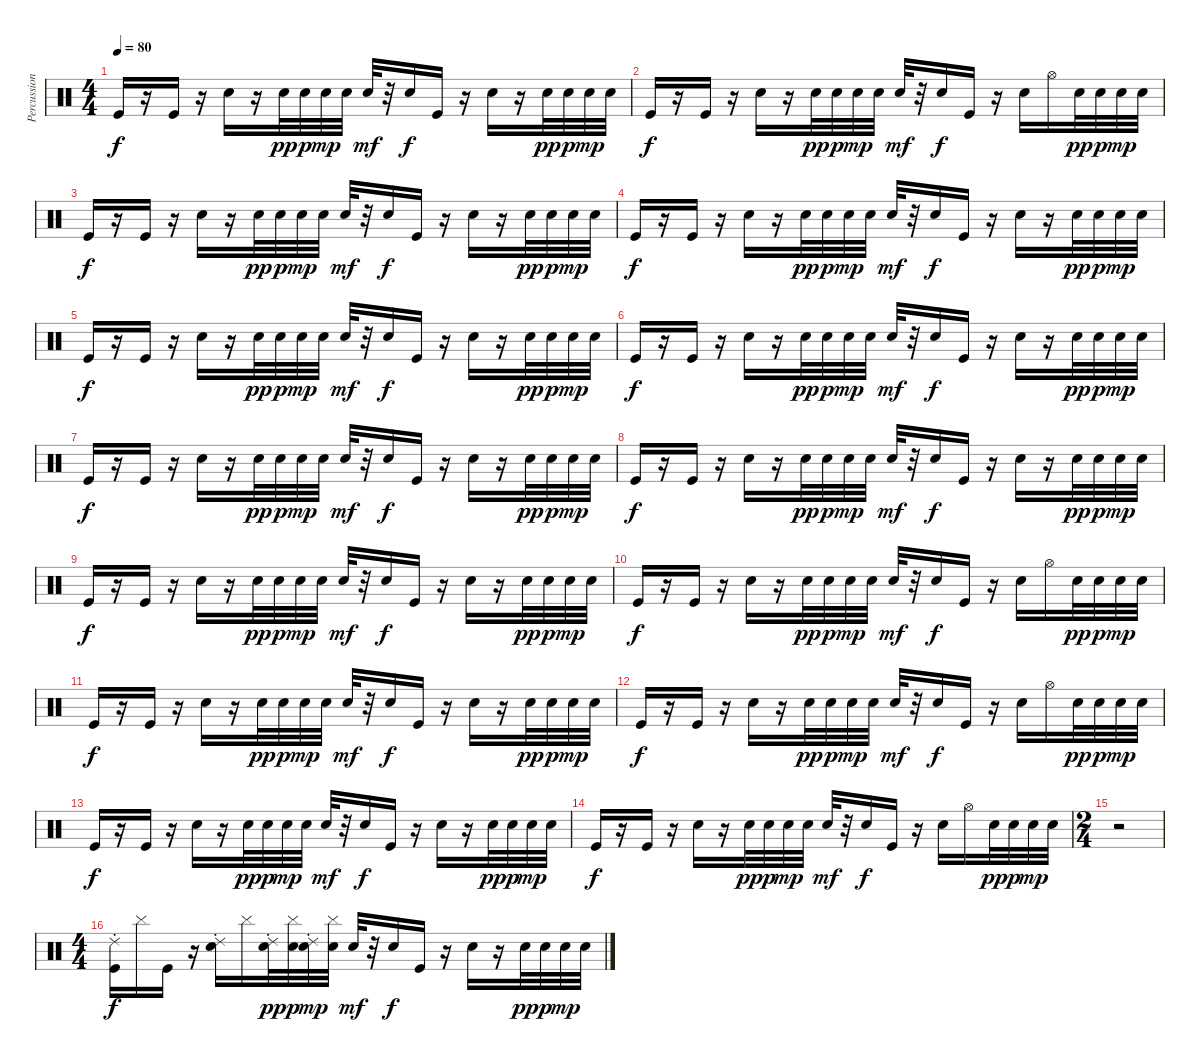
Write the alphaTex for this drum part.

\track ("Percussions" "Percussion") {instrument percussion}
\staff {score}
\articulation defaults
\ts (4 4)
\tempo 80
\clef neutral
\ks c "Kick (hit)".16{dy f}
r.16 "Kick (hit)".16 r.16 "Snare (hit) 2".16 r.16 "Snare (hit) 2".32{dy pp} "Snare (hit) 2".32{dy p} "Snare (hit) 2".32{dy mp} "Snare (hit) 2".32 "Snare (hit) 2".32{dy mf} r.32 "Electric Snare (hit)".16{dy f} "Kick (hit)".16 r.16 "Electric Snare (hit)".16 r.16 "Snare (hit) 2".32{dy pp} "Snare (hit) 2".32{dy p} "Snare (hit) 2".32{dy mp} "Snare (hit) 2".32 |
"Kick (hit)".16{dy f} r.16 "Kick (hit)".16 r.16 "Snare (hit) 2".16 r.16 "Snare (hit) 2".32{dy pp} "Snare (hit) 2".32{dy p} "Snare (hit) 2".32{dy mp} "Snare (hit) 2".32 "Snare (hit) 2".32{dy mf} r.32 "Electric Snare (hit)".16{dy f} "Kick (hit)".16 r.16 "Electric Snare (hit)".16 "Hi-Hat (open)".16 "Snare (hit) 2".32{dy pp} "Snare (hit) 2".32{dy p} "Snare (hit) 2".32{dy mp} "Snare (hit) 2".32 |
"Kick (hit)".16{dy f volume 0} r.16{volume 11} "Kick (hit)".16 r.16 "Snare (hit) 2".16 r.16 "Snare (hit) 2".32{dy pp} "Snare (hit) 2".32{dy p} "Snare (hit) 2".32{dy mp} "Snare (hit) 2".32 "Snare (hit) 2".32{dy mf} r.32 "Electric Snare (hit)".16{dy f} "Kick (hit)".16 r.16 "Electric Snare (hit)".16 r.16 "Snare (hit) 2".32{dy pp} "Snare (hit) 2".32{dy p} "Snare (hit) 2".32{dy mp} "Snare (hit) 2".32 |
"Kick (hit)".16{dy f} r.16 "Kick (hit)".16 r.16 "Snare (hit) 2".16 r.16 "Snare (hit) 2".32{dy pp} "Snare (hit) 2".32{dy p} "Snare (hit) 2".32{dy mp} "Snare (hit) 2".32 "Snare (hit) 2".32{dy mf} r.32 "Electric Snare (hit)".16{dy f} "Kick (hit)".16 r.16 "Electric Snare (hit)".16 r.16 "Snare (hit) 2".32{dy pp} "Snare (hit) 2".32{dy p} "Snare (hit) 2".32{dy mp} "Snare (hit) 2".32 |
"Kick (hit)".16{dy f} r.16 "Kick (hit)".16 r.16 "Snare (hit) 2".16 r.16 "Snare (hit) 2".32{dy pp} "Snare (hit) 2".32{dy p} "Snare (hit) 2".32{dy mp} "Snare (hit) 2".32 "Snare (hit) 2".32{dy mf} r.32 "Electric Snare (hit)".16{dy f} "Kick (hit)".16 r.16 "Electric Snare (hit)".16 r.16 "Snare (hit) 2".32{dy pp} "Snare (hit) 2".32{dy p} "Snare (hit) 2".32{dy mp} "Snare (hit) 2".32 |
"Kick (hit)".16{dy f} r.16 "Kick (hit)".16 r.16 "Snare (hit) 2".16 r.16 "Snare (hit) 2".32{dy pp} "Snare (hit) 2".32{dy p} "Snare (hit) 2".32{dy mp} "Snare (hit) 2".32 "Snare (hit) 2".32{dy mf} r.32 "Electric Snare (hit)".16{dy f} "Kick (hit)".16 r.16 "Electric Snare (hit)".16 r.16 "Snare (hit) 2".32{dy pp} "Snare (hit) 2".32{dy p} "Snare (hit) 2".32{dy mp} "Snare (hit) 2".32 |
"Kick (hit)".16{dy f} r.16 "Kick (hit)".16 r.16 "Snare (hit) 2".16 r.16 "Snare (hit) 2".32{dy pp} "Snare (hit) 2".32{dy p} "Snare (hit) 2".32{dy mp} "Snare (hit) 2".32 "Snare (hit) 2".32{dy mf} r.32 "Electric Snare (hit)".16{dy f} "Kick (hit)".16 r.16 "Electric Snare (hit)".16 r.16 "Snare (hit) 2".32{dy pp} "Snare (hit) 2".32{dy p} "Snare (hit) 2".32{dy mp} "Snare (hit) 2".32 |
"Kick (hit)".16{dy f} r.16 "Kick (hit)".16 r.16 "Snare (hit) 2".16 r.16 "Snare (hit) 2".32{dy pp} "Snare (hit) 2".32{dy p} "Snare (hit) 2".32{dy mp} "Snare (hit) 2".32 "Snare (hit) 2".32{dy mf} r.32 "Electric Snare (hit)".16{dy f} "Kick (hit)".16 r.16 "Electric Snare (hit)".16 r.16 "Snare (hit) 2".32{dy pp} "Snare (hit) 2".32{dy p} "Snare (hit) 2".32{dy mp} "Snare (hit) 2".32 |
"Kick (hit)".16{dy f} r.16 "Kick (hit)".16 r.16 "Snare (hit) 2".16 r.16 "Snare (hit) 2".32{dy pp} "Snare (hit) 2".32{dy p} "Snare (hit) 2".32{dy mp} "Snare (hit) 2".32 "Snare (hit) 2".32{dy mf} r.32 "Electric Snare (hit)".16{dy f} "Kick (hit)".16 r.16 "Electric Snare (hit)".16 r.16 "Snare (hit) 2".32{dy pp} "Snare (hit) 2".32{dy p} "Snare (hit) 2".32{dy mp} "Snare (hit) 2".32 |
"Kick (hit)".16{dy f} r.16 "Kick (hit)".16 r.16 "Snare (hit) 2".16 r.16 "Snare (hit) 2".32{dy pp} "Snare (hit) 2".32{dy p} "Snare (hit) 2".32{dy mp} "Snare (hit) 2".32 "Snare (hit) 2".32{dy mf} r.32 "Electric Snare (hit)".16{dy f} "Kick (hit)".16 r.16 "Electric Snare (hit)".16 "Hi-Hat (open)".16 "Snare (hit) 2".32{dy pp} "Snare (hit) 2".32{dy p} "Snare (hit) 2".32{dy mp} "Snare (hit) 2".32 |
"Kick (hit)".16{dy f} r.16 "Kick (hit)".16 r.16 "Snare (hit) 2".16 r.16 "Snare (hit) 2".32{dy pp} "Snare (hit) 2".32{dy p} "Snare (hit) 2".32{dy mp} "Snare (hit) 2".32 "Snare (hit) 2".32{dy mf} r.32 "Electric Snare (hit)".16{dy f} "Kick (hit)".16 r.16 "Electric Snare (hit)".16 r.16 "Snare (hit) 2".32{dy pp} "Snare (hit) 2".32{dy p} "Snare (hit) 2".32{dy mp} "Snare (hit) 2".32 |
"Kick (hit)".16{dy f} r.16 "Kick (hit)".16 r.16 "Snare (hit) 2".16 r.16 "Snare (hit) 2".32{dy pp} "Snare (hit) 2".32{dy p} "Snare (hit) 2".32{dy mp} "Snare (hit) 2".32 "Snare (hit) 2".32{dy mf} r.32 "Electric Snare (hit)".16{dy f} "Kick (hit)".16 r.16 "Electric Snare (hit)".16 "Hi-Hat (open)".16 "Snare (hit) 2".32{dy pp} "Snare (hit) 2".32{dy p} "Snare (hit) 2".32{dy mp} "Snare (hit) 2".32 |
"Kick (hit)".16{dy f} r.16 "Kick (hit)".16 r.16 "Snare (hit) 2".16 r.16 "Snare (hit) 2".32{dy pp} "Snare (hit) 2".32{dy p} "Snare (hit) 2".32{dy mp} "Snare (hit) 2".32 "Snare (hit) 2".32{dy mf} r.32 "Electric Snare (hit)".16{dy f} "Kick (hit)".16 r.16 "Electric Snare (hit)".16 r.16 "Snare (hit) 2".32{dy pp} "Snare (hit) 2".32{dy p} "Snare (hit) 2".32{dy mp} "Snare (hit) 2".32 |
"Kick (hit)".16{dy f} r.16 "Kick (hit)".16 r.16 "Snare (hit) 2".16 r.16 "Snare (hit) 2".32{dy pp} "Snare (hit) 2".32{dy p} "Snare (hit) 2".32{dy mp} "Snare (hit) 2".32 "Snare (hit) 2".32{dy mf} r.32 "Electric Snare (hit)".16{dy f} "Kick (hit)".16 r.16 "Electric Snare (hit)".16 "Hi-Hat (open)".16 "Snare (hit) 2".32{dy pp} "Snare (hit) 2".32{dy p} "Snare (hit) 2".32{dy mp} "Snare (hit) 2".32 |
\ts (2 4)
r.2 |
\ts (4 4)
("Ride (choke) 2" "Kick (hit)").16{dy f} "Cymbal (hit)".16 "Kick (hit)".16 r.16 ("Ride (choke) 2" "Snare (hit) 2").16 "Cymbal (hit)".16 ("Ride (choke) 2" "Snare (hit) 2").32{dy pp} ("Cymbal (hit)" "Snare (hit) 2").32{dy p} ("Ride (choke) 2" "Snare (hit) 2").32{dy mp} ("Cymbal (hit)" "Snare (hit) 2").32 "Snare (hit) 2".32{dy mf} r.32 "Electric Snare (hit)".16{dy f} "Kick (hit)".16 r.16 "Electric Snare (hit)".16 r.16 "Snare (hit) 2".32{dy pp} "Snare (hit) 2".32{dy p} "Snare (hit) 2".32{dy mp} "Snare (hit) 2".32
